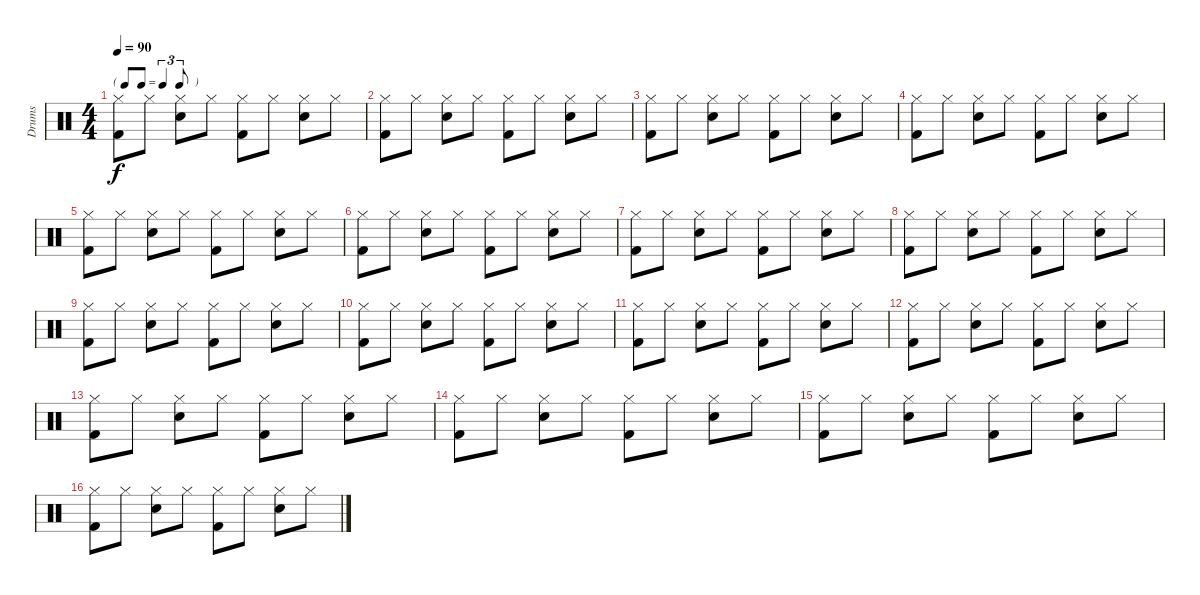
\track ("Drums" "Drums") {instrument percussion}
\staff {score}
\articulation defaults
\ts (4 4)
\tf triplet8th
\tempo 90
\clef neutral
\ks c
("Kick (hit) 2" "Hi-Hat (closed)").8{dy f} "Hi-Hat (closed)".8 ("Electric Snare (hit)" "Hi-Hat (closed)").8 "Hi-Hat (closed)".8 ("Kick (hit) 2" "Hi-Hat (closed)").8 "Hi-Hat (closed)".8 ("Electric Snare (hit)" "Hi-Hat (closed)").8 "Hi-Hat (closed)".8 |
("Kick (hit) 2" "Hi-Hat (closed)").8 "Hi-Hat (closed)".8 ("Electric Snare (hit)" "Hi-Hat (closed)").8 "Hi-Hat (closed)".8 ("Kick (hit) 2" "Hi-Hat (closed)").8 "Hi-Hat (closed)".8 ("Electric Snare (hit)" "Hi-Hat (closed)").8 "Hi-Hat (closed)".8 |
("Kick (hit) 2" "Hi-Hat (closed)").8 "Hi-Hat (closed)".8 ("Electric Snare (hit)" "Hi-Hat (closed)").8 "Hi-Hat (closed)".8 ("Kick (hit) 2" "Hi-Hat (closed)").8 "Hi-Hat (closed)".8 ("Electric Snare (hit)" "Hi-Hat (closed)").8 "Hi-Hat (closed)".8 |
("Kick (hit) 2" "Hi-Hat (closed)").8 "Hi-Hat (closed)".8 ("Electric Snare (hit)" "Hi-Hat (closed)").8 "Hi-Hat (closed)".8 ("Kick (hit) 2" "Hi-Hat (closed)").8 "Hi-Hat (closed)".8 ("Electric Snare (hit)" "Hi-Hat (closed)").8 "Hi-Hat (closed)".8 |
("Kick (hit) 2" "Hi-Hat (closed)").8 "Hi-Hat (closed)".8 ("Electric Snare (hit)" "Hi-Hat (closed)").8 "Hi-Hat (closed)".8 ("Kick (hit) 2" "Hi-Hat (closed)").8 "Hi-Hat (closed)".8 ("Electric Snare (hit)" "Hi-Hat (closed)").8 "Hi-Hat (closed)".8 |
("Kick (hit) 2" "Hi-Hat (closed)").8 "Hi-Hat (closed)".8 ("Electric Snare (hit)" "Hi-Hat (closed)").8 "Hi-Hat (closed)".8 ("Kick (hit) 2" "Hi-Hat (closed)").8 "Hi-Hat (closed)".8 ("Electric Snare (hit)" "Hi-Hat (closed)").8 "Hi-Hat (closed)".8 |
("Kick (hit) 2" "Hi-Hat (closed)").8 "Hi-Hat (closed)".8 ("Electric Snare (hit)" "Hi-Hat (closed)").8 "Hi-Hat (closed)".8 ("Kick (hit) 2" "Hi-Hat (closed)").8 "Hi-Hat (closed)".8 ("Electric Snare (hit)" "Hi-Hat (closed)").8 "Hi-Hat (closed)".8 |
("Kick (hit) 2" "Hi-Hat (closed)").8 "Hi-Hat (closed)".8 ("Electric Snare (hit)" "Hi-Hat (closed)").8 "Hi-Hat (closed)".8 ("Kick (hit) 2" "Hi-Hat (closed)").8 "Hi-Hat (closed)".8 ("Electric Snare (hit)" "Hi-Hat (closed)").8 "Hi-Hat (closed)".8 |
("Kick (hit) 2" "Hi-Hat (closed)").8 "Hi-Hat (closed)".8 ("Electric Snare (hit)" "Hi-Hat (closed)").8 "Hi-Hat (closed)".8 ("Kick (hit) 2" "Hi-Hat (closed)").8 "Hi-Hat (closed)".8 ("Electric Snare (hit)" "Hi-Hat (closed)").8 "Hi-Hat (closed)".8 |
("Kick (hit) 2" "Hi-Hat (closed)").8 "Hi-Hat (closed)".8 ("Electric Snare (hit)" "Hi-Hat (closed)").8 "Hi-Hat (closed)".8 ("Kick (hit) 2" "Hi-Hat (closed)").8 "Hi-Hat (closed)".8 ("Electric Snare (hit)" "Hi-Hat (closed)").8 "Hi-Hat (closed)".8 |
("Kick (hit) 2" "Hi-Hat (closed)").8 "Hi-Hat (closed)".8 ("Electric Snare (hit)" "Hi-Hat (closed)").8 "Hi-Hat (closed)".8 ("Kick (hit) 2" "Hi-Hat (closed)").8 "Hi-Hat (closed)".8 ("Electric Snare (hit)" "Hi-Hat (closed)").8 "Hi-Hat (closed)".8 |
("Kick (hit) 2" "Hi-Hat (closed)").8 "Hi-Hat (closed)".8 ("Electric Snare (hit)" "Hi-Hat (closed)").8 "Hi-Hat (closed)".8 ("Kick (hit) 2" "Hi-Hat (closed)").8 "Hi-Hat (closed)".8 ("Electric Snare (hit)" "Hi-Hat (closed)").8 "Hi-Hat (closed)".8 |
("Kick (hit) 2" "Hi-Hat (closed)").8 "Hi-Hat (closed)".8 ("Electric Snare (hit)" "Hi-Hat (closed)").8 "Hi-Hat (closed)".8 ("Kick (hit) 2" "Hi-Hat (closed)").8 "Hi-Hat (closed)".8 ("Electric Snare (hit)" "Hi-Hat (closed)").8 "Hi-Hat (closed)".8 |
("Kick (hit) 2" "Hi-Hat (closed)").8 "Hi-Hat (closed)".8 ("Electric Snare (hit)" "Hi-Hat (closed)").8 "Hi-Hat (closed)".8 ("Kick (hit) 2" "Hi-Hat (closed)").8 "Hi-Hat (closed)".8 ("Electric Snare (hit)" "Hi-Hat (closed)").8 "Hi-Hat (closed)".8 |
("Kick (hit) 2" "Hi-Hat (closed)").8 "Hi-Hat (closed)".8 ("Electric Snare (hit)" "Hi-Hat (closed)").8 "Hi-Hat (closed)".8 ("Kick (hit) 2" "Hi-Hat (closed)").8 "Hi-Hat (closed)".8 ("Electric Snare (hit)" "Hi-Hat (closed)").8 "Hi-Hat (closed)".8 |
("Kick (hit) 2" "Hi-Hat (closed)").8 "Hi-Hat (closed)".8 ("Electric Snare (hit)" "Hi-Hat (closed)").8 "Hi-Hat (closed)".8 ("Kick (hit) 2" "Hi-Hat (closed)").8 "Hi-Hat (closed)".8 ("Electric Snare (hit)" "Hi-Hat (closed)").8 "Hi-Hat (closed)".8
